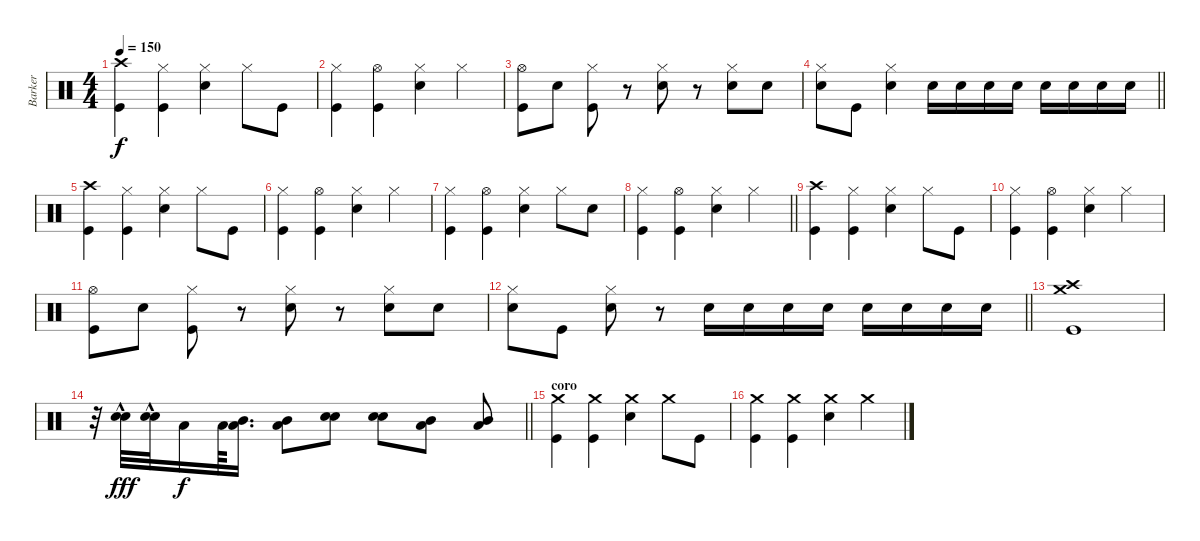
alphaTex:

\track ("Barker" "Barker") {instrument percussion}
\staff {score}
\articulation defaults
\ts (4 4)
\tempo 150
\clef neutral
\ks c
("Crash high (hit)" "Kick (hit)").4{dy f} ("Hi-Hat (closed)" "Kick (hit)").4 ("Hi-Hat (closed)" "Electric Snare (hit)").4 "Hi-Hat (closed)".8 "Kick (hit)".8 |
("Hi-Hat (closed)" "Kick (hit)").4 ("Hi-Hat (open)" "Kick (hit)").4 ("Hi-Hat (closed)" "Electric Snare (hit)").4 "Hi-Hat (closed)".4 |
("Hi-Hat (open)" "Kick (hit)").8 "Electric Snare (hit)".8 ("Hi-Hat (closed)" "Kick (hit)").8 r.8 ("Hi-Hat (closed)" "Electric Snare (hit)").8 r.8 ("Hi-Hat (closed)" "Electric Snare (hit)").8 "Electric Snare (hit)".8 |
\barLineRight lightlight
("Hi-Hat (closed)" "Electric Snare (hit)").8 "Kick (hit)".8 ("Hi-Hat (closed)" "Electric Snare (hit)").4 "Electric Snare (hit)".16 "Electric Snare (hit)".16 "Electric Snare (hit)".16 "Electric Snare (hit)".16 "Electric Snare (hit)".16 "Electric Snare (hit)".16 "Electric Snare (hit)".16 "Electric Snare (hit)".16 |
("Crash high (hit)" "Kick (hit)").4 ("Hi-Hat (closed)" "Kick (hit)").4 ("Hi-Hat (closed)" "Electric Snare (hit)").4 "Hi-Hat (closed)".8 "Kick (hit)".8 |
("Hi-Hat (closed)" "Kick (hit)").4 ("Hi-Hat (open)" "Kick (hit)").4 ("Hi-Hat (closed)" "Electric Snare (hit)").4 "Hi-Hat (closed)".4 |
("Hi-Hat (closed)" "Kick (hit)").4 ("Hi-Hat (open)" "Kick (hit)").4 ("Hi-Hat (closed)" "Electric Snare (hit)").4 "Hi-Hat (closed)".8 "Electric Snare (hit)".8 |
\barLineRight lightlight
("Hi-Hat (closed)" "Kick (hit)").4 ("Hi-Hat (open)" "Kick (hit)").4 ("Hi-Hat (closed)" "Electric Snare (hit)").4 "Hi-Hat (closed)".4 |
("Crash high (hit)" "Kick (hit)").4 ("Hi-Hat (closed)" "Kick (hit)").4 ("Hi-Hat (closed)" "Electric Snare (hit)").4 "Hi-Hat (closed)".8 "Kick (hit)".8 |
("Hi-Hat (closed)" "Kick (hit)").4 ("Hi-Hat (open)" "Kick (hit)").4 ("Hi-Hat (closed)" "Electric Snare (hit)").4 "Hi-Hat (closed)".4 |
("Hi-Hat (open)" "Kick (hit)").8 "Electric Snare (hit)".8 ("Hi-Hat (closed)" "Kick (hit)").8 r.8 ("Hi-Hat (closed)" "Electric Snare (hit)").8 r.8 ("Hi-Hat (closed)" "Electric Snare (hit)").8 "Electric Snare (hit)".8 |
\barLineRight lightlight
("Hi-Hat (closed)" "Electric Snare (hit)").8 "Kick (hit)".8 ("Hi-Hat (closed)" "Electric Snare (hit)").8 r.8 "Electric Snare (hit)".16 "Electric Snare (hit)".16 "Electric Snare (hit)".16 "Electric Snare (hit)".16 "Electric Snare (hit)".16 "Electric Snare (hit)".16 "Electric Snare (hit)".16 "Electric Snare (hit)".16 |
("Crash medium (hit)" "Crash high (hit)" "Kick (hit)").1 |
\barLineRight lightlight
r.32 ("Electric Snare (hit)" "Snare (hit) 2"{hac}).32{dy fff} ("Electric Snare (hit)" "Snare (hit) 2"{hac}).32 "Low Tom (hit)".16{dy f} "Low Tom (hit)".64 ("Low Tom (hit)" "Mid Tom (hit)").16{d} ("Low Tom (hit)" "Mid Tom (hit)").8 ("Electric Snare (hit)" "Snare (hit) 2").8 ("Electric Snare (hit)" "Snare (hit) 2").8 ("Low Tom (hit)" "Mid Tom (hit)").8 ("Low Tom (hit)" "Mid Tom (hit)").8 |
\section ("" "coro")
("Crash medium (hit)" "Kick (hit)").4 ("Crash medium (hit)" "Kick (hit)").4 ("Crash medium (hit)" "Electric Snare (hit)").4 "Crash medium (hit)".8 "Kick (hit)".8 |
("Crash medium (hit)" "Kick (hit)").4 ("Crash medium (hit)" "Kick (hit)").4 ("Crash medium (hit)" "Electric Snare (hit)").4 "Crash medium (hit)".4
